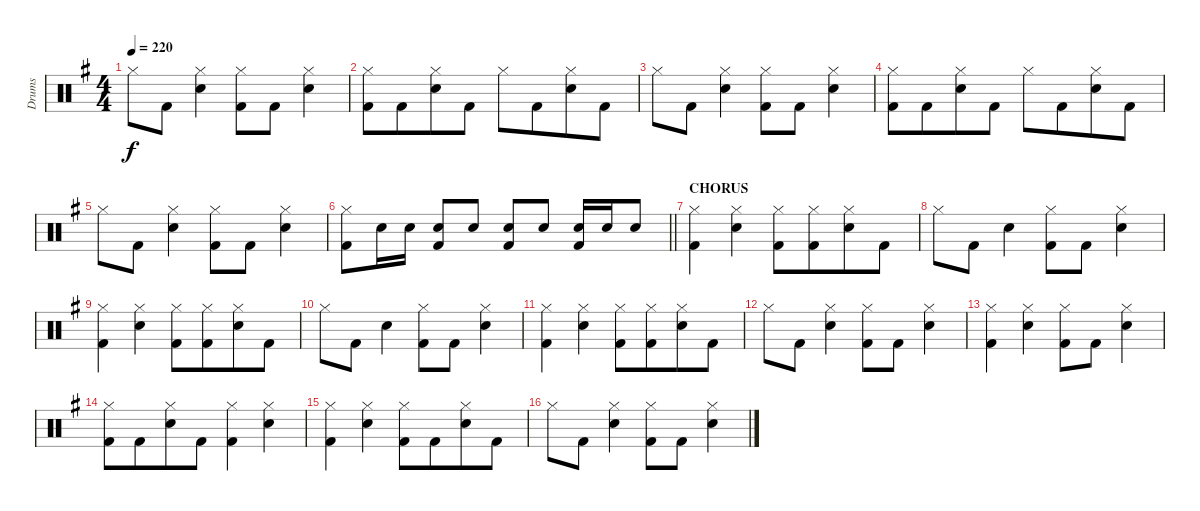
\track ("Drums" "Drums") {instrument percussion}
\staff {score}
\articulation defaults
\ts (4 4)
\tempo 220
\clef neutral
\ks eminor "Hi-Hat (closed)".8{dy f} "Kick (hit) 2".8
("Hi-Hat (closed)" "Electric Snare (hit)").4 ("Hi-Hat (closed)" "Kick (hit) 2").8 "Kick (hit) 2".8 ("Hi-Hat (closed)" "Electric Snare (hit)").4 |
("Hi-Hat (closed)" "Kick (hit) 2").8 "Kick (hit) 2".8{beam merge} ("Hi-Hat (closed)" "Electric Snare (hit)").8 "Kick (hit) 2".8 "Hi-Hat (closed)".8 "Kick (hit) 2".8{beam merge} ("Hi-Hat (closed)" "Electric Snare (hit)").8 "Kick (hit) 2".8 |
"Hi-Hat (closed)".8 "Kick (hit) 2".8 ("Hi-Hat (closed)" "Electric Snare (hit)").4 ("Hi-Hat (closed)" "Kick (hit) 2").8 "Kick (hit) 2".8 ("Hi-Hat (closed)" "Electric Snare (hit)").4 |
("Hi-Hat (closed)" "Kick (hit) 2").8 "Kick (hit) 2".8{beam merge} ("Hi-Hat (closed)" "Electric Snare (hit)").8 "Kick (hit) 2".8 "Hi-Hat (closed)".8 "Kick (hit) 2".8{beam merge} ("Hi-Hat (closed)" "Electric Snare (hit)").8 "Kick (hit) 2".8 |
"Hi-Hat (closed)".8 "Kick (hit) 2".8 ("Hi-Hat (closed)" "Electric Snare (hit)").4 ("Hi-Hat (closed)" "Kick (hit) 2").8 "Kick (hit) 2".8 ("Hi-Hat (closed)" "Electric Snare (hit)").4 |
\barLineRight lightlight
("Hi-Hat (closed)" "Kick (hit) 2").8 "Electric Snare (hit)".16 "Electric Snare (hit)".16 ("Electric Snare (hit)" "Kick (hit) 2").8 "Electric Snare (hit)".8 ("Electric Snare (hit)" "Kick (hit) 2").8 "Electric Snare (hit)".8 ("Electric Snare (hit)" "Kick (hit) 2").16 "Electric Snare (hit)".16 "Electric Snare (hit)".8 |
\section ("" "CHORUS")
("Hi-Hat (closed)" "Kick (hit) 2").4 ("Hi-Hat (closed)" "Electric Snare (hit)").4 ("Hi-Hat (closed)" "Kick (hit) 2").8 ("Hi-Hat (closed)" "Kick (hit) 2").8{beam merge} ("Hi-Hat (closed)" "Electric Snare (hit)").8 "Kick (hit) 2".8 |
"Hi-Hat (closed)".8 "Kick (hit) 2".8 "Electric Snare (hit)".4 ("Hi-Hat (closed)" "Kick (hit) 2").8 "Kick (hit) 2".8 ("Hi-Hat (closed)" "Electric Snare (hit)").4 |
("Hi-Hat (closed)" "Kick (hit) 2").4 ("Hi-Hat (closed)" "Electric Snare (hit)").4 ("Hi-Hat (closed)" "Kick (hit) 2").8 ("Hi-Hat (closed)" "Kick (hit) 2").8{beam merge} ("Hi-Hat (closed)" "Electric Snare (hit)").8 "Kick (hit) 2".8 |
"Hi-Hat (closed)".8 "Kick (hit) 2".8 "Electric Snare (hit)".4 ("Hi-Hat (closed)" "Kick (hit) 2").8 "Kick (hit) 2".8 ("Hi-Hat (closed)" "Electric Snare (hit)").4 |
("Hi-Hat (closed)" "Kick (hit) 2").4 ("Hi-Hat (closed)" "Electric Snare (hit)").4 ("Hi-Hat (closed)" "Kick (hit) 2").8 ("Hi-Hat (closed)" "Kick (hit) 2").8{beam merge} ("Hi-Hat (closed)" "Electric Snare (hit)").8 "Kick (hit) 2".8 |
"Hi-Hat (closed)".8 "Kick (hit) 2".8 ("Hi-Hat (closed)" "Electric Snare (hit)").4 ("Hi-Hat (closed)" "Kick (hit) 2").8 "Kick (hit) 2".8 ("Hi-Hat (closed)" "Electric Snare (hit)").4 |
("Hi-Hat (closed)" "Kick (hit) 2").4 ("Hi-Hat (closed)" "Electric Snare (hit)").4 ("Hi-Hat (closed)" "Kick (hit) 2").8 "Kick (hit) 2".8{beam merge} ("Hi-Hat (closed)" "Electric Snare (hit)").4 |
("Hi-Hat (closed)" "Kick (hit) 2").8 "Kick (hit) 2".8{beam merge} ("Hi-Hat (closed)" "Electric Snare (hit)").8 "Kick (hit) 2".8 ("Hi-Hat (closed)" "Kick (hit) 2").4 ("Hi-Hat (closed)" "Electric Snare (hit)").4 |
("Hi-Hat (closed)" "Kick (hit) 2").4 ("Hi-Hat (closed)" "Electric Snare (hit)").4 ("Hi-Hat (closed)" "Kick (hit) 2").8 "Kick (hit) 2".8{beam merge} ("Hi-Hat (closed)" "Electric Snare (hit)").8 "Kick (hit) 2".8 |
"Hi-Hat (closed)".8 "Kick (hit) 2".8 ("Hi-Hat (closed)" "Electric Snare (hit)").4 ("Hi-Hat (closed)" "Kick (hit) 2").8 "Kick (hit) 2".8 ("Hi-Hat (closed)" "Electric Snare (hit)").4
